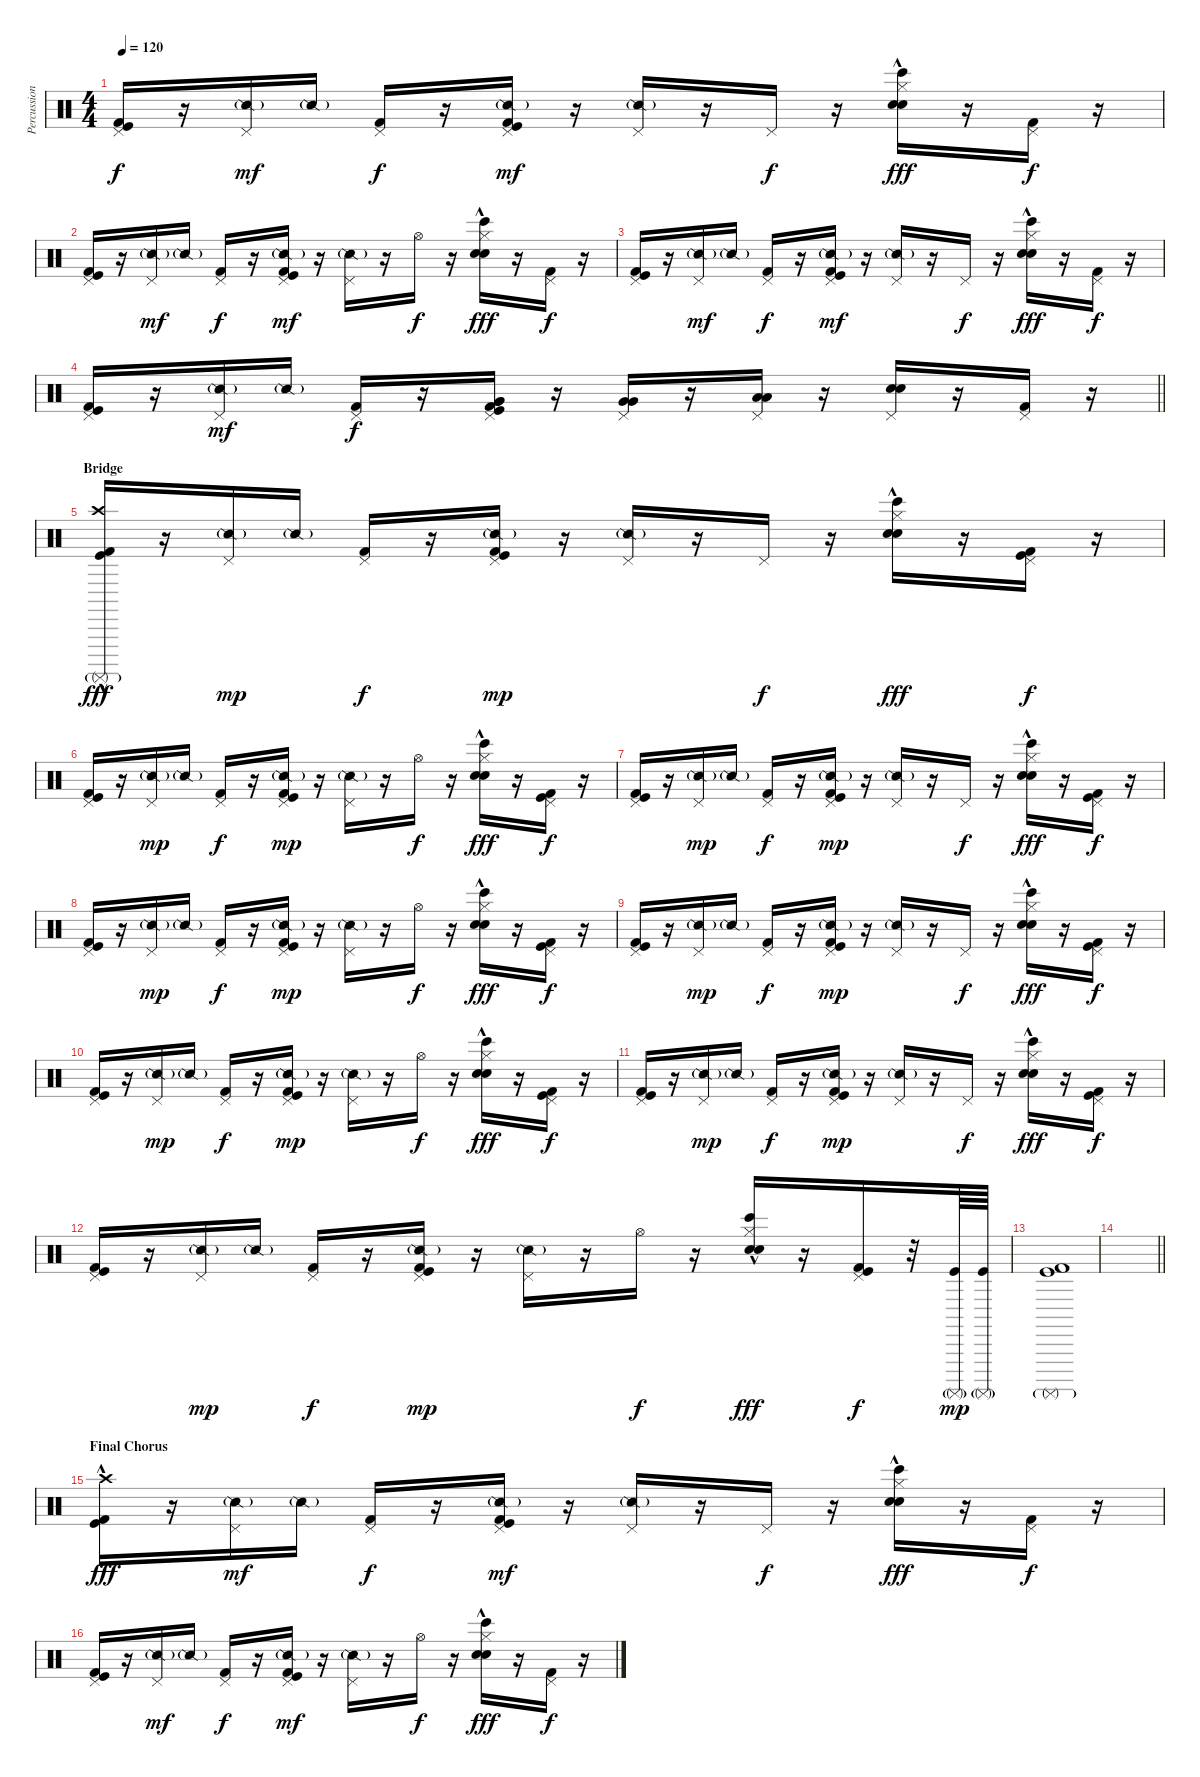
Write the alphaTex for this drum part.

\track ("Percussion" "Percussion") {instrument percussion}
\staff {score}
\articulation defaults
\ts (4 4)
\tempo 120
\clef neutral
\ks c
("Pedal Hi-Hat (hit)" "Kick (hit) 2" "Kick (hit)").16{dy f} r.16 ("Pedal Hi-Hat (hit)" "Snare (side stick) 2"{g}).16{dy mf} "Snare (side stick) 2"{g}.16 ("Pedal Hi-Hat (hit)" "Kick (hit) 2").16{dy f} r.16 ("Pedal Hi-Hat (hit)" "Snare (side stick) 2"{g} "Kick (hit) 2" "Kick (hit)").16{dy mf} r.16 ("Pedal Hi-Hat (hit)" "Snare (side stick) 2"{g}).16 r.16 "Pedal Hi-Hat (hit)".16{dy f} r.16 ("Hi-Hat (closed)"{hac} "Hand Clap (hit)" "Bongo High (hit)" "Electric Snare (hit)").16{dy fff} r.16 ("Pedal Hi-Hat (hit)" "Kick (hit) 2").16{dy f} r.16 |
("Pedal Hi-Hat (hit)" "Kick (hit) 2" "Kick (hit)").16 r.16 ("Pedal Hi-Hat (hit)" "Snare (side stick) 2"{g}).16{dy mf} "Snare (side stick) 2"{g}.16 ("Pedal Hi-Hat (hit)" "Kick (hit) 2").16{dy f} r.16 ("Pedal Hi-Hat (hit)" "Snare (side stick) 2"{g} "Kick (hit) 2" "Kick (hit)").16{dy mf} r.16 ("Pedal Hi-Hat (hit)" "Snare (side stick) 2"{g}).16 r.16 "Hi-Hat (open)".16{dy f} r.16 ("Hi-Hat (closed)"{hac} "Hand Clap (hit)" "Bongo High (hit)" "Electric Snare (hit)").16{dy fff} r.16 ("Pedal Hi-Hat (hit)" "Kick (hit) 2").16{dy f} r.16 |
("Pedal Hi-Hat (hit)" "Kick (hit) 2" "Kick (hit)").16 r.16 ("Pedal Hi-Hat (hit)" "Snare (side stick) 2"{g}).16{dy mf} "Snare (side stick) 2"{g}.16 ("Pedal Hi-Hat (hit)" "Kick (hit) 2").16{dy f} r.16 ("Pedal Hi-Hat (hit)" "Snare (side stick) 2"{g} "Kick (hit) 2" "Kick (hit)").16{dy mf} r.16 ("Pedal Hi-Hat (hit)" "Snare (side stick) 2"{g}).16 r.16 "Pedal Hi-Hat (hit)".16{dy f} r.16 ("Hi-Hat (closed)"{hac} "Hand Clap (hit)" "Bongo High (hit)" "Electric Snare (hit)").16{dy fff} r.16 ("Pedal Hi-Hat (hit)" "Kick (hit) 2").16{dy f} r.16 |
\barLineRight lightlight
("Pedal Hi-Hat (hit)" "Kick (hit) 2" "Kick (hit)").16 r.16 ("Pedal Hi-Hat (hit)" "Snare (side stick) 2"{g}).16{dy mf} "Snare (side stick) 2"{g}.16 ("Pedal Hi-Hat (hit)" "Kick (hit) 2").16{dy f} r.16 ("Pedal Hi-Hat (hit)" "Very Low Tom (hit)" "Very Low Tom (hit)" "Kick (hit) 2" "Kick (hit)").16 r.16 ("Pedal Hi-Hat (hit)" "Very Low Tom (hit)" "Very Low Tom (hit)").16 r.16 ("Pedal Hi-Hat (hit)" "Low Tom (hit)" "Low Tom (hit)").16 r.16 ("Pedal Hi-Hat (hit)" "Electric Snare (hit)" "Hand Clap (hit)").16 r.16 ("Pedal Hi-Hat (hit)" "Kick (hit) 2").16 r.16 |
\section ("" "Bridge")
("Crash high (hit)" "Surdo (mute)"{g} "Kick (hit) 2"{hac} "Kick (hit)"{hac}).16{dy fff} r.16 ("Pedal Hi-Hat (hit)" "Snare (side stick) 2"{g}).16{dy mp} "Snare (side stick) 2"{g}.16 ("Pedal Hi-Hat (hit)" "Kick (hit) 2").16{dy f} r.16 ("Pedal Hi-Hat (hit)" "Snare (side stick) 2"{g} "Kick (hit) 2" "Kick (hit)").16{dy mp} r.16 ("Pedal Hi-Hat (hit)" "Snare (side stick) 2"{g}).16 r.16 "Pedal Hi-Hat (hit)".16{dy f} r.16 ("Hi-Hat (closed)"{hac} "Hand Clap (hit)" "Bongo High (hit)" "Electric Snare (hit)").16{dy fff} r.16 ("Pedal Hi-Hat (hit)" "Kick (hit) 2" "Kick (hit)").16{dy f} r.16 |
("Pedal Hi-Hat (hit)" "Kick (hit) 2" "Kick (hit)").16 r.16 ("Pedal Hi-Hat (hit)" "Snare (side stick) 2"{g}).16{dy mp} "Snare (side stick) 2"{g}.16 ("Pedal Hi-Hat (hit)" "Kick (hit) 2").16{dy f} r.16 ("Pedal Hi-Hat (hit)" "Snare (side stick) 2"{g} "Kick (hit) 2" "Kick (hit)").16{dy mp} r.16 ("Pedal Hi-Hat (hit)" "Snare (side stick) 2"{g}).16 r.16 "Hi-Hat (open)".16{dy f} r.16 ("Hi-Hat (closed)"{hac} "Hand Clap (hit)" "Bongo High (hit)" "Electric Snare (hit)").16{dy fff} r.16 ("Pedal Hi-Hat (hit)" "Kick (hit) 2" "Kick (hit)").16{dy f} r.16 |
("Pedal Hi-Hat (hit)" "Kick (hit) 2" "Kick (hit)").16 r.16 ("Pedal Hi-Hat (hit)" "Snare (side stick) 2"{g}).16{dy mp} "Snare (side stick) 2"{g}.16 ("Pedal Hi-Hat (hit)" "Kick (hit) 2").16{dy f} r.16 ("Pedal Hi-Hat (hit)" "Snare (side stick) 2"{g} "Kick (hit) 2" "Kick (hit)").16{dy mp} r.16 ("Pedal Hi-Hat (hit)" "Snare (side stick) 2"{g}).16 r.16 "Pedal Hi-Hat (hit)".16{dy f} r.16 ("Hi-Hat (closed)"{hac} "Hand Clap (hit)" "Bongo High (hit)" "Electric Snare (hit)").16{dy fff} r.16 ("Pedal Hi-Hat (hit)" "Kick (hit) 2" "Kick (hit)").16{dy f} r.16 |
("Pedal Hi-Hat (hit)" "Kick (hit) 2" "Kick (hit)").16 r.16 ("Pedal Hi-Hat (hit)" "Snare (side stick) 2"{g}).16{dy mp} "Snare (side stick) 2"{g}.16 ("Pedal Hi-Hat (hit)" "Kick (hit) 2").16{dy f} r.16 ("Pedal Hi-Hat (hit)" "Snare (side stick) 2"{g} "Kick (hit) 2" "Kick (hit)").16{dy mp} r.16 ("Pedal Hi-Hat (hit)" "Snare (side stick) 2"{g}).16 r.16 "Hi-Hat (open)".16{dy f} r.16 ("Hi-Hat (closed)"{hac} "Hand Clap (hit)" "Bongo High (hit)" "Electric Snare (hit)").16{dy fff} r.16 ("Pedal Hi-Hat (hit)" "Kick (hit) 2" "Kick (hit)").16{dy f} r.16 |
("Pedal Hi-Hat (hit)" "Kick (hit) 2" "Kick (hit)").16 r.16 ("Pedal Hi-Hat (hit)" "Snare (side stick) 2"{g}).16{dy mp} "Snare (side stick) 2"{g}.16 ("Pedal Hi-Hat (hit)" "Kick (hit) 2").16{dy f} r.16 ("Pedal Hi-Hat (hit)" "Snare (side stick) 2"{g} "Kick (hit) 2" "Kick (hit)").16{dy mp} r.16 ("Pedal Hi-Hat (hit)" "Snare (side stick) 2"{g}).16 r.16 "Pedal Hi-Hat (hit)".16{dy f} r.16 ("Hi-Hat (closed)"{hac} "Hand Clap (hit)" "Bongo High (hit)" "Electric Snare (hit)").16{dy fff} r.16 ("Pedal Hi-Hat (hit)" "Kick (hit) 2" "Kick (hit)").16{dy f} r.16 |
("Pedal Hi-Hat (hit)" "Kick (hit) 2" "Kick (hit)").16 r.16 ("Pedal Hi-Hat (hit)" "Snare (side stick) 2"{g}).16{dy mp} "Snare (side stick) 2"{g}.16 ("Pedal Hi-Hat (hit)" "Kick (hit) 2").16{dy f} r.16 ("Pedal Hi-Hat (hit)" "Snare (side stick) 2"{g} "Kick (hit) 2" "Kick (hit)").16{dy mp} r.16 ("Pedal Hi-Hat (hit)" "Snare (side stick) 2"{g}).16 r.16 "Hi-Hat (open)".16{dy f} r.16 ("Hi-Hat (closed)"{hac} "Hand Clap (hit)" "Bongo High (hit)" "Electric Snare (hit)").16{dy fff} r.16 ("Pedal Hi-Hat (hit)" "Kick (hit) 2" "Kick (hit)").16{dy f} r.16 |
("Pedal Hi-Hat (hit)" "Kick (hit) 2" "Kick (hit)").16 r.16 ("Pedal Hi-Hat (hit)" "Snare (side stick) 2"{g}).16{dy mp} "Snare (side stick) 2"{g}.16 ("Pedal Hi-Hat (hit)" "Kick (hit) 2").16{dy f} r.16 ("Pedal Hi-Hat (hit)" "Snare (side stick) 2"{g} "Kick (hit) 2" "Kick (hit)").16{dy mp} r.16 ("Pedal Hi-Hat (hit)" "Snare (side stick) 2"{g}).16 r.16 "Pedal Hi-Hat (hit)".16{dy f} r.16 ("Hi-Hat (closed)"{hac} "Hand Clap (hit)" "Bongo High (hit)" "Electric Snare (hit)").16{dy fff} r.16 ("Pedal Hi-Hat (hit)" "Kick (hit) 2" "Kick (hit)").16{dy f} r.16 |
("Pedal Hi-Hat (hit)" "Kick (hit) 2" "Kick (hit)").16 r.16 ("Pedal Hi-Hat (hit)" "Snare (side stick) 2"{g}).16{dy mp} "Snare (side stick) 2"{g}.16 ("Pedal Hi-Hat (hit)" "Kick (hit) 2").16{dy f} r.16 ("Pedal Hi-Hat (hit)" "Snare (side stick) 2"{g} "Kick (hit) 2" "Kick (hit)").16{dy mp} r.16 ("Pedal Hi-Hat (hit)" "Snare (side stick) 2"{g}).16 r.16 "Hi-Hat (open)".16{dy f} r.16 ("Hi-Hat (closed)"{hac} "Hand Clap (hit)" "Bongo High (hit)" "Electric Snare (hit)").16{dy fff} r.16 ("Pedal Hi-Hat (hit)" "Kick (hit) 2" "Kick (hit)").16{dy f} r.32 ("Surdo (mute)"{g} "Kick (hit)").64{dy mp} ("Surdo (mute)"{g} "Kick (hit)").64 |
("Surdo (mute)"{g} "Kick (hit) 2" "Kick (hit)").1 |
\barLineRight lightlight
|
\section ("" "Final Chorus")
("Crash high (hit)" "Kick (hit) 2"{hac} "Kick (hit)"{hac}).16{dy fff} r.16 ("Pedal Hi-Hat (hit)" "Snare (side stick) 2"{g}).16{dy mf} "Snare (side stick) 2"{g}.16 ("Pedal Hi-Hat (hit)" "Kick (hit) 2").16{dy f} r.16 ("Pedal Hi-Hat (hit)" "Snare (side stick) 2"{g} "Kick (hit) 2" "Kick (hit)").16{dy mf} r.16 ("Pedal Hi-Hat (hit)" "Snare (side stick) 2"{g}).16 r.16 "Pedal Hi-Hat (hit)".16{dy f} r.16 ("Hi-Hat (closed)"{hac} "Hand Clap (hit)" "Bongo High (hit)" "Electric Snare (hit)").16{dy fff} r.16 ("Pedal Hi-Hat (hit)" "Kick (hit) 2").16{dy f} r.16 |
("Pedal Hi-Hat (hit)" "Kick (hit) 2" "Kick (hit)").16 r.16 ("Pedal Hi-Hat (hit)" "Snare (side stick) 2"{g}).16{dy mf} "Snare (side stick) 2"{g}.16 ("Pedal Hi-Hat (hit)" "Kick (hit) 2").16{dy f} r.16 ("Pedal Hi-Hat (hit)" "Snare (side stick) 2"{g} "Kick (hit) 2" "Kick (hit)").16{dy mf} r.16 ("Pedal Hi-Hat (hit)" "Snare (side stick) 2"{g}).16 r.16 "Hi-Hat (open)".16{dy f} r.16 ("Hi-Hat (closed)"{hac} "Hand Clap (hit)" "Bongo High (hit)" "Electric Snare (hit)").16{dy fff} r.16 ("Pedal Hi-Hat (hit)" "Kick (hit) 2").16{dy f} r.16
